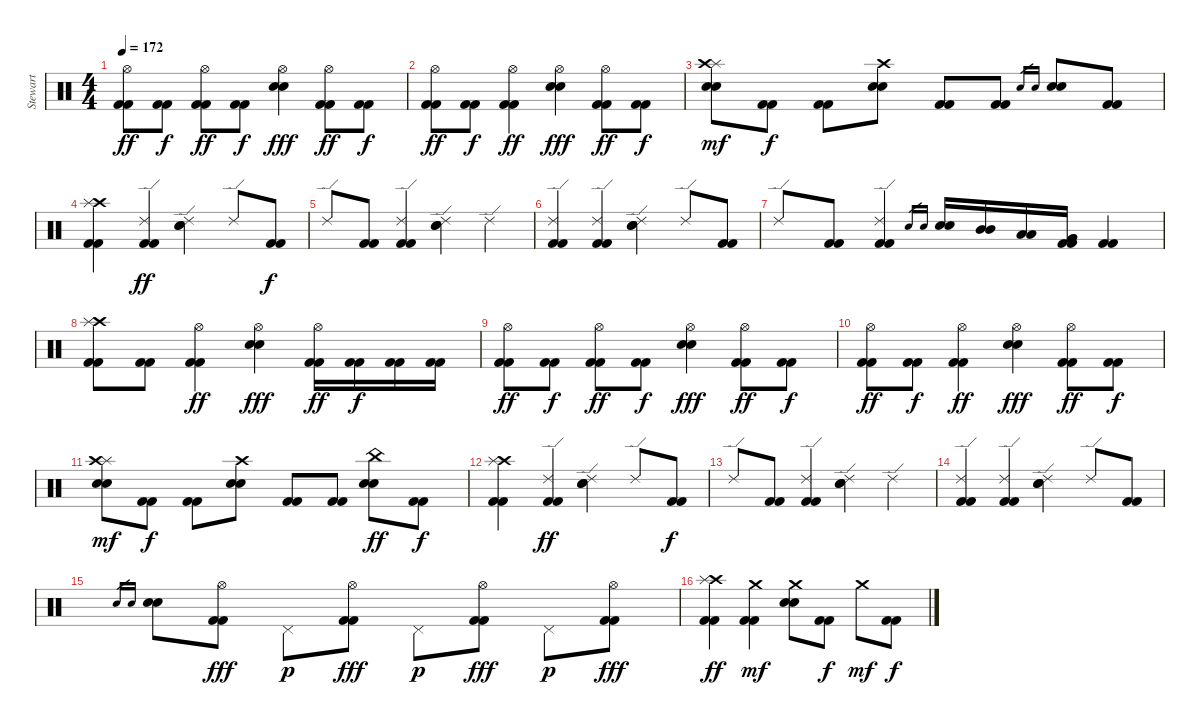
\track ("Stewart" "Stewart") {instrument percussion}
\staff {score}
\articulation defaults
\ts (4 4)
\tempo 172
\clef neutral
\ks c
("Hi-Hat (open)" "Kick (hit) 2" "Kick (hit) 2").8{dy ff} ("Kick (hit) 2" "Kick (hit) 2").8{dy f} ("Hi-Hat (open)" "Kick (hit) 2" "Kick (hit) 2").8{dy ff} ("Kick (hit) 2" "Kick (hit) 2").8{dy f} ("Hi-Hat (open)" "Electric Snare (hit)" "Electric Snare (hit)").4{dy fff} ("Hi-Hat (open)" "Kick (hit) 2" "Kick (hit) 2").8{dy ff} ("Kick (hit) 2" "Kick (hit) 2").8{dy f} |
("Hi-Hat (open)" "Kick (hit) 2" "Kick (hit) 2").8{dy ff} ("Kick (hit) 2" "Kick (hit) 2").8{dy f} ("Hi-Hat (open)" "Kick (hit) 2" "Kick (hit) 2").4{dy ff} ("Hi-Hat (open)" "Electric Snare (hit)" "Electric Snare (hit)").4{dy fff} ("Hi-Hat (open)" "Kick (hit) 2" "Kick (hit) 2").8{dy ff} ("Kick (hit) 2" "Kick (hit) 2").8{dy f} |
("Splash (hit)" "Crash high (hit)" "Electric Snare (hit)" "Electric Snare (hit)").8{dy mf} ("Kick (hit) 2" "Kick (hit) 2").8{dy f} ("Kick (hit) 2" "Kick (hit) 2").8 ("Crash high (hit)" "Electric Snare (hit)" "Electric Snare (hit)").8 ("Kick (hit) 2" "Kick (hit) 2").8 ("Kick (hit) 2" "Kick (hit) 2").8 "Electric Snare (hit)".16{gr} "Electric Snare (hit)".16{gr} ("Electric Snare (hit)" "Electric Snare (hit)").8 ("Kick (hit) 2" "Kick (hit) 2").8 |
("Crash high (hit)" "Splash (hit)" "Kick (hit) 2" "Kick (hit) 2").4 ("Ride (edge) 2" "Kick (hit) 2" "Kick (hit) 2").4{dy ff} ("Ride (edge) 2" "Electric Snare (hit)" "Electric Snare (hit)").4 "Ride (edge) 2".8 ("Kick (hit) 2" "Kick (hit) 2").8{dy f} |
"Ride (edge) 2".8 ("Kick (hit) 2" "Kick (hit) 2").8 ("Ride (edge) 2" "Kick (hit) 2" "Kick (hit) 2").4 ("Ride (edge) 2" "Electric Snare (hit)" "Electric Snare (hit)").4 "Ride (edge) 2".4 |
("Ride (edge) 2" "Kick (hit) 2" "Kick (hit) 2").4 ("Ride (edge) 2" "Kick (hit) 2" "Kick (hit) 2").4 ("Ride (edge) 2" "Electric Snare (hit)" "Electric Snare (hit)").4 "Ride (edge) 2".8 ("Kick (hit) 2" "Kick (hit) 2").8 |
"Ride (edge) 2".8 ("Kick (hit) 2" "Kick (hit) 2").8 ("Ride (edge) 2" "Kick (hit) 2" "Kick (hit) 2").4 "Electric Snare (hit)".16{gr} "Electric Snare (hit)".16{gr} ("Electric Snare (hit)" "Electric Snare (hit)").16 ("Mid Tom (hit)" "Mid Tom (hit)").16 ("Low Tom (hit)" "Low Tom (hit)").16 ("Very Low Tom (hit)" "Very Low Tom (hit)" "Kick (hit) 2" "Kick (hit) 2").16 ("Kick (hit) 2" "Kick (hit) 2").4 |
("Crash high (hit)" "Splash (hit)" "Kick (hit) 2" "Kick (hit) 2").8 ("Kick (hit) 2" "Kick (hit) 2").8 ("Hi-Hat (open)" "Kick (hit) 2" "Kick (hit) 2").4{dy ff} ("Hi-Hat (open)" "Electric Snare (hit)" "Electric Snare (hit)").4{dy fff} ("Hi-Hat (open)" "Kick (hit) 2" "Kick (hit) 2").16{dy ff} ("Kick (hit) 2" "Kick (hit) 2").16{dy f} ("Kick (hit) 2" "Kick (hit) 2").16 ("Kick (hit) 2" "Kick (hit) 2").16 |
("Hi-Hat (open)" "Kick (hit) 2" "Kick (hit) 2").8{dy ff} ("Kick (hit) 2" "Kick (hit) 2").8{dy f} ("Hi-Hat (open)" "Kick (hit) 2" "Kick (hit) 2").8{dy ff} ("Kick (hit) 2" "Kick (hit) 2").8{dy f} ("Hi-Hat (open)" "Electric Snare (hit)" "Electric Snare (hit)").4{dy fff} ("Hi-Hat (open)" "Kick (hit) 2" "Kick (hit) 2").8{dy ff} ("Kick (hit) 2" "Kick (hit) 2").8{dy f} |
("Hi-Hat (open)" "Kick (hit) 2" "Kick (hit) 2").8{dy ff} ("Kick (hit) 2" "Kick (hit) 2").8{dy f} ("Hi-Hat (open)" "Kick (hit) 2" "Kick (hit) 2").4{dy ff} ("Hi-Hat (open)" "Electric Snare (hit)" "Electric Snare (hit)").4{dy fff} ("Hi-Hat (open)" "Kick (hit) 2" "Kick (hit) 2").8{dy ff} ("Kick (hit) 2" "Kick (hit) 2").8{dy f} |
("Splash (hit)" "Crash high (hit)" "Electric Snare (hit)" "Electric Snare (hit)").8{dy mf} ("Kick (hit) 2" "Kick (hit) 2").8{dy f} ("Kick (hit) 2" "Kick (hit) 2").8 ("Crash high (hit)" "Electric Snare (hit)" "Electric Snare (hit)").8 ("Kick (hit) 2" "Kick (hit) 2").8 ("Kick (hit) 2" "Kick (hit) 2").8 ("China (hit)" "Electric Snare (hit)" "Electric Snare (hit)").8{dy ff} ("Kick (hit) 2" "Kick (hit) 2").8{dy f} |
("Crash high (hit)" "Splash (hit)" "Kick (hit) 2" "Kick (hit) 2").4 ("Ride (edge) 2" "Kick (hit) 2" "Kick (hit) 2").4{dy ff} ("Ride (edge) 2" "Electric Snare (hit)" "Electric Snare (hit)").4 "Ride (edge) 2".8 ("Kick (hit) 2" "Kick (hit) 2").8{dy f} |
"Ride (edge) 2".8 ("Kick (hit) 2" "Kick (hit) 2").8 ("Ride (edge) 2" "Kick (hit) 2" "Kick (hit) 2").4 ("Ride (edge) 2" "Electric Snare (hit)" "Electric Snare (hit)").4 "Ride (edge) 2".4 |
("Ride (edge) 2" "Kick (hit) 2" "Kick (hit) 2").4 ("Ride (edge) 2" "Kick (hit) 2" "Kick (hit) 2").4 ("Ride (edge) 2" "Electric Snare (hit)" "Electric Snare (hit)").4 "Ride (edge) 2".8 ("Kick (hit) 2" "Kick (hit) 2").8 |
"Electric Snare (hit)".16{gr} "Electric Snare (hit)".16{gr} ("Electric Snare (hit)" "Electric Snare (hit)").8 ("Hi-Hat (open)" "Kick (hit) 2" "Kick (hit) 2").8{dy fff} "Pedal Hi-Hat (hit)".8{dy p} ("Hi-Hat (open)" "Kick (hit) 2" "Kick (hit) 2").8{dy fff} "Pedal Hi-Hat (hit)".8{dy p} ("Hi-Hat (open)" "Kick (hit) 2" "Kick (hit) 2").8{dy fff} "Pedal Hi-Hat (hit)".8{dy p} ("Hi-Hat (open)" "Kick (hit) 2" "Kick (hit) 2").8{dy fff} |
("Crash high (hit)" "Splash (hit)" "Kick (hit) 2" "Kick (hit) 2").4{dy ff} ("Crash medium (hit)" "Kick (hit) 2" "Kick (hit) 2").4{dy mf} ("Crash medium (hit)" "Electric Snare (hit)" "Electric Snare (hit)").8 ("Kick (hit) 2" "Kick (hit) 2").8{dy f} "Crash medium (hit)".8{dy mf} ("Kick (hit) 2" "Kick (hit) 2").8{dy f}
